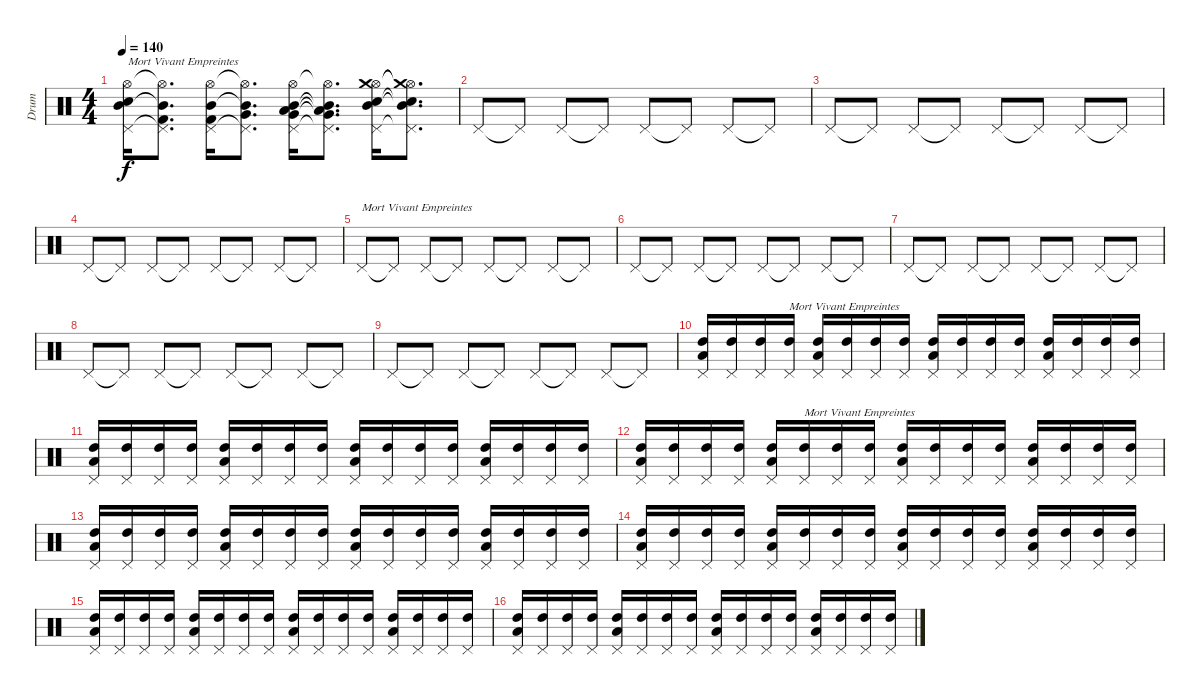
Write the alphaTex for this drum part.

\track ("Drum" "Drum") {instrument percussion}
\staff {score}
\articulation defaults
\ts (4 4)
\tempo 140
\clef neutral
\ks c
("Hi-Hat (open)" "Snare (hit) 2" "Mid Tom (hit)" "Pedal Hi-Hat (hit)").16{txt "Mort Vivant Empreintes" dy f} ("Hi-Hat (open)"{t} "Kick (hit) 2" "Mid Tom (hit)"{t} "Pedal Hi-Hat (hit)"{t}).8{d} ("Hi-Hat (open)" "Kick (hit) 2" "Mid Tom (hit)" "Pedal Hi-Hat (hit)").16{beam merge} ("Hi-Hat (open)"{t} "Very Low Tom (hit)" "Mid Tom (hit)"{t} "Pedal Hi-Hat (hit)"{t}).8{d} ("Hi-Hat (open)" "Very Low Tom (hit)" "Mid Tom (hit)" "Low Tom (hit)" "Pedal Hi-Hat (hit)").16{beam merge} ("Hi-Hat (open)"{t} "Very Low Tom (hit)"{t} "Mid Tom (hit)"{t} "Low Tom (hit)"{t} "Pedal Hi-Hat (hit)"{t}).8{d} ("Hi-Hat (open)" "Snare (hit) 2" "Mid Tom (hit)" "Crash medium (hit)" "Pedal Hi-Hat (hit)").16{beam merge} ("Hi-Hat (open)"{t} "Snare (hit) 2"{t} "Mid Tom (hit)"{t} "Crash medium (hit)"{t} "Pedal Hi-Hat (hit)"{t}).8{d} |
"Pedal Hi-Hat (hit)".8 "Pedal Hi-Hat (hit)"{t}.8 "Pedal Hi-Hat (hit)".8 "Pedal Hi-Hat (hit)"{t}.8 "Pedal Hi-Hat (hit)".8 "Pedal Hi-Hat (hit)"{t}.8 "Pedal Hi-Hat (hit)".8 "Pedal Hi-Hat (hit)"{t}.8 |
"Pedal Hi-Hat (hit)".8 "Pedal Hi-Hat (hit)"{t}.8 "Pedal Hi-Hat (hit)".8 "Pedal Hi-Hat (hit)"{t}.8 "Pedal Hi-Hat (hit)".8 "Pedal Hi-Hat (hit)"{t}.8 "Pedal Hi-Hat (hit)".8 "Pedal Hi-Hat (hit)"{t}.8 |
"Pedal Hi-Hat (hit)".8 "Pedal Hi-Hat (hit)"{t}.8 "Pedal Hi-Hat (hit)".8 "Pedal Hi-Hat (hit)"{t}.8 "Pedal Hi-Hat (hit)".8 "Pedal Hi-Hat (hit)"{t}.8 "Pedal Hi-Hat (hit)".8 "Pedal Hi-Hat (hit)"{t}.8 |
"Pedal Hi-Hat (hit)".8{txt "Mort Vivant Empreintes"} "Pedal Hi-Hat (hit)"{t}.8 "Pedal Hi-Hat (hit)".8 "Pedal Hi-Hat (hit)"{t}.8 "Pedal Hi-Hat (hit)".8 "Pedal Hi-Hat (hit)"{t}.8 "Pedal Hi-Hat (hit)".8 "Pedal Hi-Hat (hit)"{t}.8 |
"Pedal Hi-Hat (hit)".8 "Pedal Hi-Hat (hit)"{t}.8 "Pedal Hi-Hat (hit)".8 "Pedal Hi-Hat (hit)"{t}.8 "Pedal Hi-Hat (hit)".8 "Pedal Hi-Hat (hit)"{t}.8 "Pedal Hi-Hat (hit)".8 "Pedal Hi-Hat (hit)"{t}.8 |
"Pedal Hi-Hat (hit)".8 "Pedal Hi-Hat (hit)"{t}.8 "Pedal Hi-Hat (hit)".8 "Pedal Hi-Hat (hit)"{t}.8 "Pedal Hi-Hat (hit)".8 "Pedal Hi-Hat (hit)"{t}.8 "Pedal Hi-Hat (hit)".8 "Pedal Hi-Hat (hit)"{t}.8 |
"Pedal Hi-Hat (hit)".8 "Pedal Hi-Hat (hit)"{t}.8 "Pedal Hi-Hat (hit)".8 "Pedal Hi-Hat (hit)"{t}.8 "Pedal Hi-Hat (hit)".8 "Pedal Hi-Hat (hit)"{t}.8 "Pedal Hi-Hat (hit)".8 "Pedal Hi-Hat (hit)"{t}.8 |
"Pedal Hi-Hat (hit)".8 "Pedal Hi-Hat (hit)"{t}.8 "Pedal Hi-Hat (hit)".8 "Pedal Hi-Hat (hit)"{t}.8 "Pedal Hi-Hat (hit)".8 "Pedal Hi-Hat (hit)"{t}.8 "Pedal Hi-Hat (hit)".8 "Pedal Hi-Hat (hit)"{t}.8 |
("High Tom (hit)" "Low Tom (hit)" "Pedal Hi-Hat (hit)").16 ("High Tom (hit)" "Pedal Hi-Hat (hit)").16 ("High Tom (hit)" "Pedal Hi-Hat (hit)").16 ("High Tom (hit)" "Pedal Hi-Hat (hit)").16{txt "Mort Vivant Empreintes"} ("High Tom (hit)" "Low Tom (hit)" "Pedal Hi-Hat (hit)").16 ("High Tom (hit)" "Pedal Hi-Hat (hit)").16 ("High Tom (hit)" "Pedal Hi-Hat (hit)").16 ("High Tom (hit)" "Pedal Hi-Hat (hit)").16 ("High Tom (hit)" "Low Tom (hit)" "Pedal Hi-Hat (hit)").16 ("High Tom (hit)" "Pedal Hi-Hat (hit)").16 ("High Tom (hit)" "Pedal Hi-Hat (hit)").16 ("High Tom (hit)" "Pedal Hi-Hat (hit)").16 ("High Tom (hit)" "Low Tom (hit)" "Pedal Hi-Hat (hit)").16 ("High Tom (hit)" "Pedal Hi-Hat (hit)").16 ("High Tom (hit)" "Pedal Hi-Hat (hit)").16 ("High Tom (hit)" "Pedal Hi-Hat (hit)").16 |
("High Tom (hit)" "Low Tom (hit)" "Pedal Hi-Hat (hit)").16 ("High Tom (hit)" "Pedal Hi-Hat (hit)").16 ("High Tom (hit)" "Pedal Hi-Hat (hit)").16 ("High Tom (hit)" "Pedal Hi-Hat (hit)").16 ("High Tom (hit)" "Low Tom (hit)" "Pedal Hi-Hat (hit)").16 ("High Tom (hit)" "Pedal Hi-Hat (hit)").16 ("High Tom (hit)" "Pedal Hi-Hat (hit)").16 ("High Tom (hit)" "Pedal Hi-Hat (hit)").16 ("High Tom (hit)" "Low Tom (hit)" "Pedal Hi-Hat (hit)").16 ("High Tom (hit)" "Pedal Hi-Hat (hit)").16 ("High Tom (hit)" "Pedal Hi-Hat (hit)").16 ("High Tom (hit)" "Pedal Hi-Hat (hit)").16 ("High Tom (hit)" "Low Tom (hit)" "Pedal Hi-Hat (hit)").16 ("High Tom (hit)" "Pedal Hi-Hat (hit)").16 ("High Tom (hit)" "Pedal Hi-Hat (hit)").16 ("High Tom (hit)" "Pedal Hi-Hat (hit)").16 |
("High Tom (hit)" "Low Tom (hit)" "Pedal Hi-Hat (hit)").16 ("High Tom (hit)" "Pedal Hi-Hat (hit)").16 ("High Tom (hit)" "Pedal Hi-Hat (hit)").16 ("High Tom (hit)" "Pedal Hi-Hat (hit)").16 ("High Tom (hit)" "Low Tom (hit)" "Pedal Hi-Hat (hit)").16 ("High Tom (hit)" "Pedal Hi-Hat (hit)").16{txt "Mort Vivant Empreintes"} ("High Tom (hit)" "Pedal Hi-Hat (hit)").16 ("High Tom (hit)" "Pedal Hi-Hat (hit)").16 ("High Tom (hit)" "Low Tom (hit)" "Pedal Hi-Hat (hit)").16 ("High Tom (hit)" "Pedal Hi-Hat (hit)").16 ("High Tom (hit)" "Pedal Hi-Hat (hit)").16 ("High Tom (hit)" "Pedal Hi-Hat (hit)").16 ("High Tom (hit)" "Low Tom (hit)" "Pedal Hi-Hat (hit)").16 ("High Tom (hit)" "Pedal Hi-Hat (hit)").16 ("High Tom (hit)" "Pedal Hi-Hat (hit)").16 ("High Tom (hit)" "Pedal Hi-Hat (hit)").16 |
("High Tom (hit)" "Low Tom (hit)" "Pedal Hi-Hat (hit)").16 ("High Tom (hit)" "Pedal Hi-Hat (hit)").16 ("High Tom (hit)" "Pedal Hi-Hat (hit)").16 ("High Tom (hit)" "Pedal Hi-Hat (hit)").16 ("High Tom (hit)" "Low Tom (hit)" "Pedal Hi-Hat (hit)").16 ("High Tom (hit)" "Pedal Hi-Hat (hit)").16 ("High Tom (hit)" "Pedal Hi-Hat (hit)").16 ("High Tom (hit)" "Pedal Hi-Hat (hit)").16 ("High Tom (hit)" "Low Tom (hit)" "Pedal Hi-Hat (hit)").16 ("High Tom (hit)" "Pedal Hi-Hat (hit)").16 ("High Tom (hit)" "Pedal Hi-Hat (hit)").16 ("High Tom (hit)" "Pedal Hi-Hat (hit)").16 ("High Tom (hit)" "Low Tom (hit)" "Pedal Hi-Hat (hit)").16 ("High Tom (hit)" "Pedal Hi-Hat (hit)").16 ("High Tom (hit)" "Pedal Hi-Hat (hit)").16 ("High Tom (hit)" "Pedal Hi-Hat (hit)").16 |
("High Tom (hit)" "Low Tom (hit)" "Pedal Hi-Hat (hit)").16 ("High Tom (hit)" "Pedal Hi-Hat (hit)").16 ("High Tom (hit)" "Pedal Hi-Hat (hit)").16 ("High Tom (hit)" "Pedal Hi-Hat (hit)").16 ("High Tom (hit)" "Low Tom (hit)" "Pedal Hi-Hat (hit)").16 ("High Tom (hit)" "Pedal Hi-Hat (hit)").16 ("High Tom (hit)" "Pedal Hi-Hat (hit)").16 ("High Tom (hit)" "Pedal Hi-Hat (hit)").16 ("High Tom (hit)" "Low Tom (hit)" "Pedal Hi-Hat (hit)").16 ("High Tom (hit)" "Pedal Hi-Hat (hit)").16 ("High Tom (hit)" "Pedal Hi-Hat (hit)").16 ("High Tom (hit)" "Pedal Hi-Hat (hit)").16 ("High Tom (hit)" "Low Tom (hit)" "Pedal Hi-Hat (hit)").16 ("High Tom (hit)" "Pedal Hi-Hat (hit)").16 ("High Tom (hit)" "Pedal Hi-Hat (hit)").16 ("High Tom (hit)" "Pedal Hi-Hat (hit)").16 |
("High Tom (hit)" "Low Tom (hit)" "Pedal Hi-Hat (hit)").16 ("High Tom (hit)" "Pedal Hi-Hat (hit)").16 ("High Tom (hit)" "Pedal Hi-Hat (hit)").16 ("High Tom (hit)" "Pedal Hi-Hat (hit)").16 ("High Tom (hit)" "Low Tom (hit)" "Pedal Hi-Hat (hit)").16 ("High Tom (hit)" "Pedal Hi-Hat (hit)").16 ("High Tom (hit)" "Pedal Hi-Hat (hit)").16 ("High Tom (hit)" "Pedal Hi-Hat (hit)").16 ("High Tom (hit)" "Low Tom (hit)" "Pedal Hi-Hat (hit)").16 ("High Tom (hit)" "Pedal Hi-Hat (hit)").16 ("High Tom (hit)" "Pedal Hi-Hat (hit)").16 ("High Tom (hit)" "Pedal Hi-Hat (hit)").16 ("High Tom (hit)" "Low Tom (hit)" "Pedal Hi-Hat (hit)").16 ("High Tom (hit)" "Pedal Hi-Hat (hit)").16 ("High Tom (hit)" "Pedal Hi-Hat (hit)").16 ("High Tom (hit)" "Pedal Hi-Hat (hit)").16 |
("High Tom (hit)" "Low Tom (hit)" "Pedal Hi-Hat (hit)").16 ("High Tom (hit)" "Pedal Hi-Hat (hit)").16 ("High Tom (hit)" "Pedal Hi-Hat (hit)").16 ("High Tom (hit)" "Pedal Hi-Hat (hit)").16 ("High Tom (hit)" "Low Tom (hit)" "Pedal Hi-Hat (hit)").16 ("High Tom (hit)" "Pedal Hi-Hat (hit)").16 ("High Tom (hit)" "Pedal Hi-Hat (hit)").16 ("High Tom (hit)" "Pedal Hi-Hat (hit)").16 ("High Tom (hit)" "Low Tom (hit)" "Pedal Hi-Hat (hit)").16 ("High Tom (hit)" "Pedal Hi-Hat (hit)").16 ("High Tom (hit)" "Pedal Hi-Hat (hit)").16 ("High Tom (hit)" "Pedal Hi-Hat (hit)").16 ("High Tom (hit)" "Low Tom (hit)" "Pedal Hi-Hat (hit)").16 ("High Tom (hit)" "Pedal Hi-Hat (hit)").16 ("High Tom (hit)" "Pedal Hi-Hat (hit)").16 ("High Tom (hit)" "Pedal Hi-Hat (hit)").16
